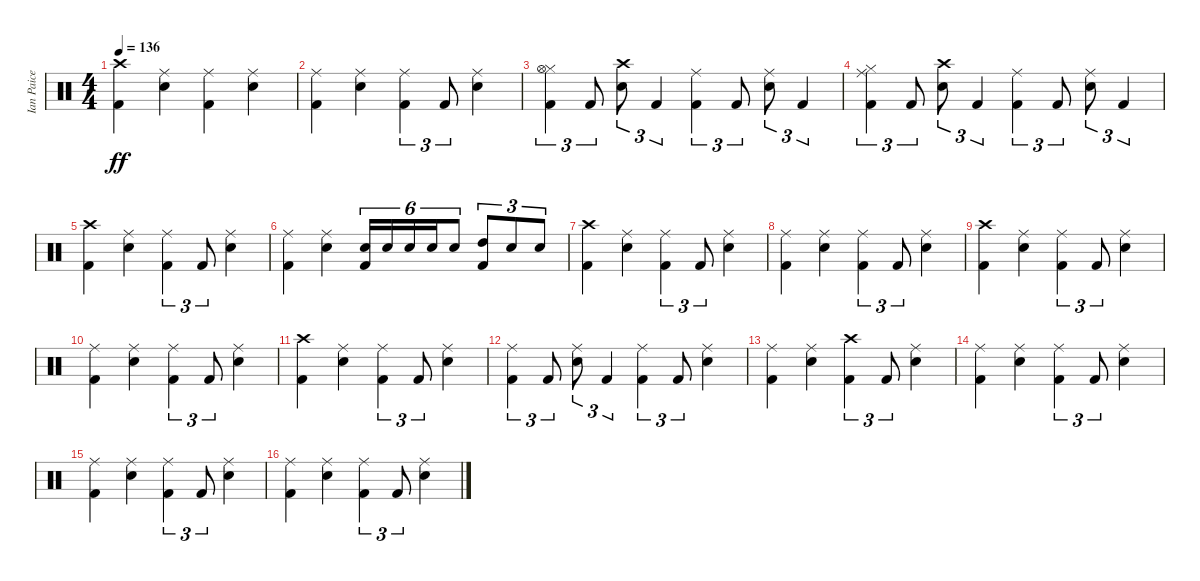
\track ("Ian Paice" "Ian Paice") {instrument percussion}
\staff {score}
\articulation defaults
\ts (4 4)
\tempo 136
\clef neutral
\ks c
("Crash high (hit)" "Kick (hit) 2").4{dy ff} ("Ride (middle)" "Electric Snare (hit)").4 ("Ride (middle)" "Kick (hit) 2").4 ("Ride (middle)" "Electric Snare (hit)").4 |
("Ride (middle)" "Kick (hit) 2").4 ("Ride (middle)" "Electric Snare (hit)").4 ("Ride (middle)" "Kick (hit) 2").4{tu (3 2)} "Kick (hit) 2".8{tu (3 2)} ("Ride (middle)" "Electric Snare (hit)").4 |
("Hi-Hat (closed)" "Hi-Hat (open)" "Kick (hit) 2").4{tu (3 2)} "Kick (hit) 2".8{tu (3 2)} ("Crash high (hit)" "Electric Snare (hit)").8{tu (3 2)} "Kick (hit) 2".4{tu (3 2)} ("Ride (middle)" "Kick (hit) 2").4{tu (3 2)} "Kick (hit) 2".8{tu (3 2)} ("Ride (middle)" "Electric Snare (hit)").8{tu (3 2)} "Kick (hit) 2".4{tu (3 2)} |
("Ride (middle)" "Hi-Hat (closed)" "Kick (hit) 2").4{tu (3 2)} "Kick (hit) 2".8{tu (3 2)} ("Crash high (hit)" "Electric Snare (hit)").8{tu (3 2)} "Kick (hit) 2".4{tu (3 2)} ("Ride (middle)" "Kick (hit) 2").4{tu (3 2)} "Kick (hit) 2".8{tu (3 2)} ("Ride (middle)" "Electric Snare (hit)").8{tu (3 2)} "Kick (hit) 2".4{tu (3 2)} |
("Crash high (hit)" "Kick (hit) 2").4 ("Ride (middle)" "Electric Snare (hit)").4 ("Ride (middle)" "Kick (hit) 2").4{tu (3 2)} "Kick (hit) 2".8{tu (3 2)} ("Ride (middle)" "Electric Snare (hit)").4 |
("Ride (middle)" "Kick (hit) 2").4 ("Ride (middle)" "Electric Snare (hit)").4 ("Electric Snare (hit)" "Kick (hit) 2").16{tu (6 4)} "Electric Snare (hit)".16{tu (6 4)} "Electric Snare (hit)".16{tu (6 4)} "Electric Snare (hit)".16{tu (6 4)} "Electric Snare (hit)".8{tu (6 4)} ("High Tom (hit)" "Kick (hit) 2").8{tu (3 2)} "Electric Snare (hit)".8{tu (3 2)} "Electric Snare (hit)".8{tu (3 2)} |
("Crash high (hit)" "Kick (hit) 2").4 ("Ride (middle)" "Electric Snare (hit)").4 ("Ride (middle)" "Kick (hit) 2").4{tu (3 2)} "Kick (hit) 2".8{tu (3 2)} ("Ride (middle)" "Electric Snare (hit)").4 |
("Ride (middle)" "Kick (hit) 2").4 ("Ride (middle)" "Electric Snare (hit)").4 ("Ride (middle)" "Kick (hit) 2").4{tu (3 2)} "Kick (hit) 2".8{tu (3 2)} ("Ride (middle)" "Electric Snare (hit)").4 |
("Crash high (hit)" "Kick (hit) 2").4 ("Ride (middle)" "Electric Snare (hit)").4 ("Ride (middle)" "Kick (hit) 2").4{tu (3 2)} "Kick (hit) 2".8{tu (3 2)} ("Ride (middle)" "Electric Snare (hit)").4 |
("Ride (middle)" "Kick (hit) 2").4 ("Ride (middle)" "Electric Snare (hit)").4 ("Ride (middle)" "Kick (hit) 2").4{tu (3 2)} "Kick (hit) 2".8{tu (3 2)} ("Ride (middle)" "Electric Snare (hit)").4 |
("Crash high (hit)" "Kick (hit) 2").4 ("Ride (middle)" "Electric Snare (hit)").4 ("Ride (middle)" "Kick (hit) 2").4{tu (3 2)} "Kick (hit) 2".8{tu (3 2)} ("Ride (middle)" "Electric Snare (hit)").4 |
("Ride (middle)" "Kick (hit) 2").4{tu (3 2)} "Kick (hit) 2".8{tu (3 2)} ("Ride (middle)" "Electric Snare (hit)").8{tu (3 2)} "Kick (hit) 2".4{tu (3 2)} ("Ride (middle)" "Kick (hit) 2").4{tu (3 2)} "Kick (hit) 2".8{tu (3 2)} ("Ride (middle)" "Electric Snare (hit)").4 |
("Ride (middle)" "Kick (hit) 2").4 ("Ride (middle)" "Electric Snare (hit)").4 ("Crash high (hit)" "Kick (hit) 2").4{tu (3 2)} "Kick (hit) 2".8{tu (3 2)} ("Ride (middle)" "Electric Snare (hit)").4 |
("Ride (middle)" "Kick (hit) 2").4 ("Ride (middle)" "Electric Snare (hit)").4 ("Ride (middle)" "Kick (hit) 2").4{tu (3 2)} "Kick (hit) 2".8{tu (3 2)} ("Ride (middle)" "Electric Snare (hit)").4 |
("Ride (middle)" "Kick (hit) 2").4 ("Ride (middle)" "Electric Snare (hit)").4 ("Ride (middle)" "Kick (hit) 2").4{tu (3 2)} "Kick (hit) 2".8{tu (3 2)} ("Ride (middle)" "Electric Snare (hit)").4 |
("Ride (middle)" "Kick (hit) 2").4 ("Ride (middle)" "Electric Snare (hit)").4 ("Ride (middle)" "Kick (hit) 2").4{tu (3 2)} "Kick (hit) 2".8{tu (3 2)} ("Ride (middle)" "Electric Snare (hit)").4
